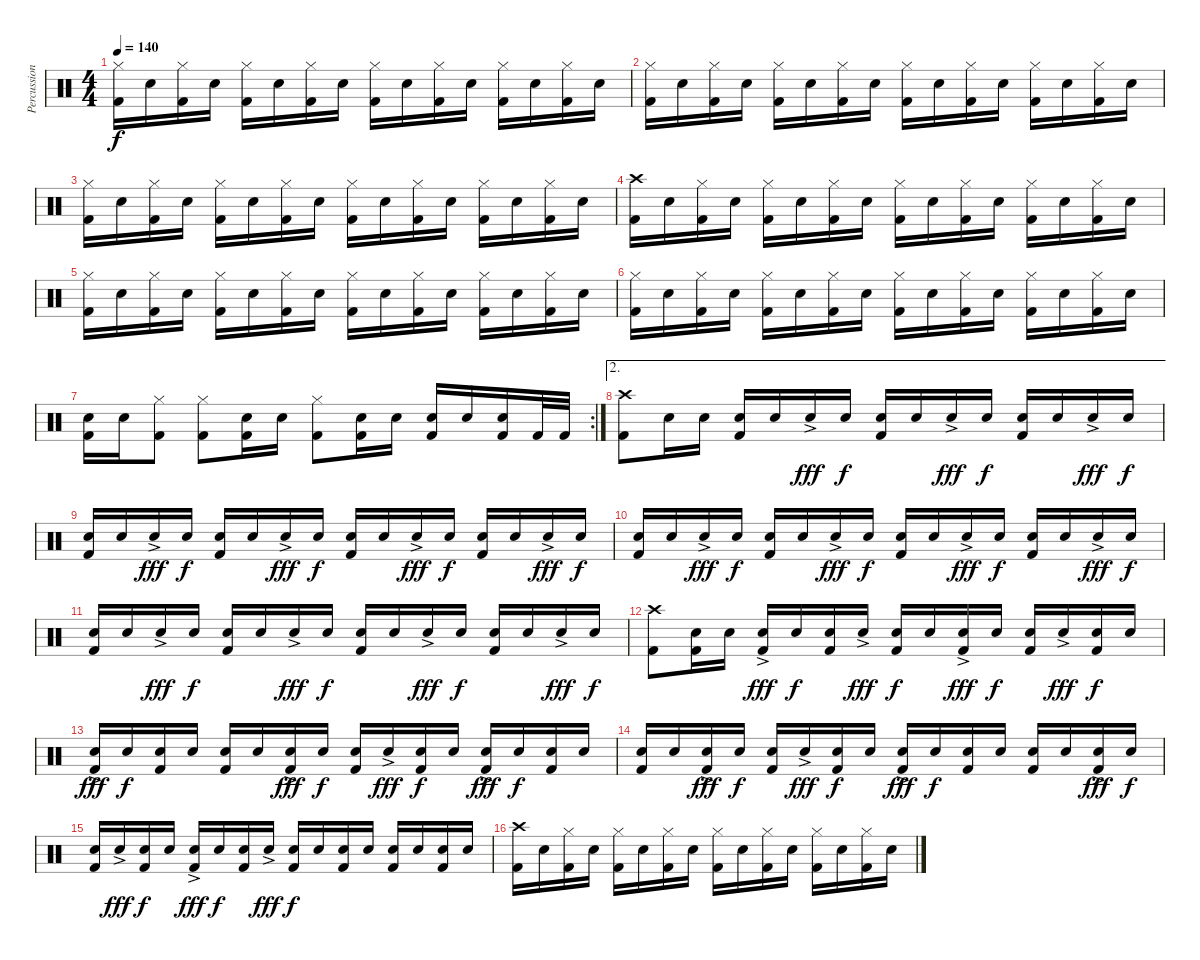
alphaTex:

\track ("Percussion" "Percussion") {instrument percussion}
\staff {score}
\articulation defaults
\ts (4 4)
\tempo 140
\clef neutral
\ks c
("Hi-Hat (closed)" "Kick (hit) 2").16{dy f} "Snare (hit) 2".16 ("Hi-Hat (closed)" "Kick (hit) 2").16 "Snare (hit) 2".16 ("Hi-Hat (closed)" "Kick (hit) 2").16 "Snare (hit) 2".16 ("Hi-Hat (closed)" "Kick (hit) 2").16 "Snare (hit) 2".16 ("Hi-Hat (closed)" "Kick (hit) 2").16 "Snare (hit) 2".16 ("Hi-Hat (closed)" "Kick (hit) 2").16 "Snare (hit) 2".16 ("Hi-Hat (closed)" "Kick (hit) 2").16 "Snare (hit) 2".16 ("Hi-Hat (closed)" "Kick (hit) 2").16 "Snare (hit) 2".16 |
("Hi-Hat (closed)" "Kick (hit) 2").16 "Snare (hit) 2".16 ("Hi-Hat (closed)" "Kick (hit) 2").16 "Snare (hit) 2".16 ("Hi-Hat (closed)" "Kick (hit) 2").16 "Snare (hit) 2".16 ("Hi-Hat (closed)" "Kick (hit) 2").16 "Snare (hit) 2".16 ("Hi-Hat (closed)" "Kick (hit) 2").16 "Snare (hit) 2".16 ("Hi-Hat (closed)" "Kick (hit) 2").16 "Snare (hit) 2".16 ("Hi-Hat (closed)" "Kick (hit) 2").16 "Snare (hit) 2".16 ("Hi-Hat (closed)" "Kick (hit) 2").16 "Snare (hit) 2".16 |
("Hi-Hat (closed)" "Kick (hit) 2").16 "Snare (hit) 2".16 ("Hi-Hat (closed)" "Kick (hit) 2").16 "Snare (hit) 2".16 ("Hi-Hat (closed)" "Kick (hit) 2").16 "Snare (hit) 2".16 ("Hi-Hat (closed)" "Kick (hit) 2").16 "Snare (hit) 2".16 ("Hi-Hat (closed)" "Kick (hit) 2").16 "Snare (hit) 2".16 ("Hi-Hat (closed)" "Kick (hit) 2").16 "Snare (hit) 2".16 ("Hi-Hat (closed)" "Kick (hit) 2").16 "Snare (hit) 2".16 ("Hi-Hat (closed)" "Kick (hit) 2").16 "Snare (hit) 2".16 |
("Crash high (hit)" "Kick (hit) 2").16 "Snare (hit) 2".16 ("Hi-Hat (closed)" "Kick (hit) 2").16 "Snare (hit) 2".16 ("Hi-Hat (closed)" "Kick (hit) 2").16 "Snare (hit) 2".16 ("Hi-Hat (closed)" "Kick (hit) 2").16 "Snare (hit) 2".16 ("Hi-Hat (closed)" "Kick (hit) 2").16 "Snare (hit) 2".16 ("Hi-Hat (closed)" "Kick (hit) 2").16 "Snare (hit) 2".16 ("Hi-Hat (closed)" "Kick (hit) 2").16 "Snare (hit) 2".16 ("Hi-Hat (closed)" "Kick (hit) 2").16 "Snare (hit) 2".16 |
("Hi-Hat (closed)" "Kick (hit) 2").16 "Snare (hit) 2".16 ("Hi-Hat (closed)" "Kick (hit) 2").16 "Snare (hit) 2".16 ("Hi-Hat (closed)" "Kick (hit) 2").16 "Snare (hit) 2".16 ("Hi-Hat (closed)" "Kick (hit) 2").16 "Snare (hit) 2".16 ("Hi-Hat (closed)" "Kick (hit) 2").16 "Snare (hit) 2".16 ("Hi-Hat (closed)" "Kick (hit) 2").16 "Snare (hit) 2".16 ("Hi-Hat (closed)" "Kick (hit) 2").16 "Snare (hit) 2".16 ("Hi-Hat (closed)" "Kick (hit) 2").16 "Snare (hit) 2".16 |
("Hi-Hat (closed)" "Kick (hit) 2").16 "Snare (hit) 2".16 ("Hi-Hat (closed)" "Kick (hit) 2").16 "Snare (hit) 2".16 ("Hi-Hat (closed)" "Kick (hit) 2").16 "Snare (hit) 2".16 ("Hi-Hat (closed)" "Kick (hit) 2").16 "Snare (hit) 2".16 ("Hi-Hat (closed)" "Kick (hit) 2").16 "Snare (hit) 2".16 ("Hi-Hat (closed)" "Kick (hit) 2").16 "Snare (hit) 2".16 ("Hi-Hat (closed)" "Kick (hit) 2").16 "Snare (hit) 2".16 ("Hi-Hat (closed)" "Kick (hit) 2").16 "Snare (hit) 2".16 |
\rc 2
("Snare (hit) 2" "Kick (hit) 2").16 "Snare (hit) 2".16 ("Hi-Hat (closed)" "Kick (hit) 2").8 ("Hi-Hat (closed)" "Kick (hit) 2").8 ("Snare (hit) 2" "Kick (hit) 2").16 "Snare (hit) 2".16 ("Hi-Hat (closed)" "Kick (hit) 2").8 ("Snare (hit) 2" "Kick (hit) 2").16 "Snare (hit) 2".16 ("Snare (hit) 2" "Kick (hit) 2").16 "Snare (hit) 2".16 ("Snare (hit) 2" "Kick (hit) 2").16 "Kick (hit) 2".32 "Kick (hit) 2".32 |
\ae 2
("Crash high (hit)" "Kick (hit) 2").8 "Snare (hit) 2".16 "Snare (hit) 2".16 ("Snare (hit) 2" "Kick (hit) 2").16 "Snare (hit) 2".16 "Snare (hit) 2"{ac}.16{dy fff} "Snare (hit) 2".16{dy f} ("Snare (hit) 2" "Kick (hit) 2").16 "Snare (hit) 2".16 "Snare (hit) 2"{ac}.16{dy fff} "Snare (hit) 2".16{dy f} ("Snare (hit) 2" "Kick (hit) 2").16 "Snare (hit) 2".16 "Snare (hit) 2"{ac}.16{dy fff} "Snare (hit) 2".16{dy f} |
("Snare (hit) 2" "Kick (hit) 2").16 "Snare (hit) 2".16 "Snare (hit) 2"{ac}.16{dy fff} "Snare (hit) 2".16{dy f} ("Snare (hit) 2" "Kick (hit) 2").16 "Snare (hit) 2".16 "Snare (hit) 2"{ac}.16{dy fff} "Snare (hit) 2".16{dy f} ("Snare (hit) 2" "Kick (hit) 2").16 "Snare (hit) 2".16 "Snare (hit) 2"{ac}.16{dy fff} "Snare (hit) 2".16{dy f} ("Snare (hit) 2" "Kick (hit) 2").16 "Snare (hit) 2".16 "Snare (hit) 2"{ac}.16{dy fff} "Snare (hit) 2".16{dy f} |
("Snare (hit) 2" "Kick (hit) 2").16 "Snare (hit) 2".16 "Snare (hit) 2"{ac}.16{dy fff} "Snare (hit) 2".16{dy f} ("Snare (hit) 2" "Kick (hit) 2").16 "Snare (hit) 2".16 "Snare (hit) 2"{ac}.16{dy fff} "Snare (hit) 2".16{dy f} ("Snare (hit) 2" "Kick (hit) 2").16 "Snare (hit) 2".16 "Snare (hit) 2"{ac}.16{dy fff} "Snare (hit) 2".16{dy f} ("Snare (hit) 2" "Kick (hit) 2").16 "Snare (hit) 2".16 "Snare (hit) 2"{ac}.16{dy fff} "Snare (hit) 2".16{dy f} |
("Snare (hit) 2" "Kick (hit) 2").16 "Snare (hit) 2".16 "Snare (hit) 2"{ac}.16{dy fff} "Snare (hit) 2".16{dy f} ("Snare (hit) 2" "Kick (hit) 2").16 "Snare (hit) 2".16 "Snare (hit) 2"{ac}.16{dy fff} "Snare (hit) 2".16{dy f} ("Snare (hit) 2" "Kick (hit) 2").16 "Snare (hit) 2".16 "Snare (hit) 2"{ac}.16{dy fff} "Snare (hit) 2".16{dy f} ("Snare (hit) 2" "Kick (hit) 2").16 "Snare (hit) 2".16 "Snare (hit) 2"{ac}.16{dy fff} "Snare (hit) 2".16{dy f} |
("Crash high (hit)" "Kick (hit) 2").8 ("Snare (hit) 2" "Kick (hit) 2").16 "Snare (hit) 2".16 ("Snare (hit) 2"{ac} "Kick (hit) 2").16{dy fff} "Snare (hit) 2".16{dy f} ("Snare (hit) 2" "Kick (hit) 2").16 "Snare (hit) 2"{ac}.16{dy fff} ("Snare (hit) 2" "Kick (hit) 2").16{dy f} "Snare (hit) 2".16 ("Snare (hit) 2"{ac} "Kick (hit) 2").16{dy fff} "Snare (hit) 2".16{dy f} ("Snare (hit) 2" "Kick (hit) 2").16 "Snare (hit) 2"{ac}.16{dy fff} ("Snare (hit) 2" "Kick (hit) 2").16{dy f} "Snare (hit) 2".16 |
("Snare (hit) 2"{ac} "Kick (hit) 2").16{dy fff} "Snare (hit) 2".16{dy f} ("Snare (hit) 2" "Kick (hit) 2").16 "Snare (hit) 2".16 ("Snare (hit) 2" "Kick (hit) 2").16 "Snare (hit) 2".16 ("Snare (hit) 2"{ac} "Kick (hit) 2").16{dy fff} "Snare (hit) 2".16{dy f} ("Snare (hit) 2" "Kick (hit) 2").16 "Snare (hit) 2"{ac}.16{dy fff} ("Snare (hit) 2" "Kick (hit) 2").16{dy f} "Snare (hit) 2".16 ("Snare (hit) 2"{ac} "Kick (hit) 2").16{dy fff} "Snare (hit) 2".16{dy f} ("Snare (hit) 2" "Kick (hit) 2").16 "Snare (hit) 2".16 |
("Snare (hit) 2" "Kick (hit) 2").16 "Snare (hit) 2".16 ("Snare (hit) 2"{ac} "Kick (hit) 2").16{dy fff} "Snare (hit) 2".16{dy f} ("Snare (hit) 2" "Kick (hit) 2").16 "Snare (hit) 2"{ac}.16{dy fff} ("Snare (hit) 2" "Kick (hit) 2").16{dy f} "Snare (hit) 2".16 ("Snare (hit) 2"{ac} "Kick (hit) 2").16{dy fff} "Snare (hit) 2".16{dy f} ("Snare (hit) 2" "Kick (hit) 2").16 "Snare (hit) 2".16 ("Snare (hit) 2" "Kick (hit) 2").16 "Snare (hit) 2".16 ("Snare (hit) 2"{ac} "Kick (hit) 2").16{dy fff} "Snare (hit) 2".16{dy f} |
("Snare (hit) 2" "Kick (hit) 2").16 "Snare (hit) 2"{ac}.16{dy fff} ("Snare (hit) 2" "Kick (hit) 2").16{dy f} "Snare (hit) 2".16 ("Snare (hit) 2"{ac} "Kick (hit) 2").16{dy fff} "Snare (hit) 2".16{dy f} ("Snare (hit) 2" "Kick (hit) 2").16 "Snare (hit) 2"{ac}.16{dy fff} ("Snare (hit) 2" "Kick (hit) 2").16{dy f} "Snare (hit) 2".16 ("Snare (hit) 2" "Kick (hit) 2").16 "Snare (hit) 2".16 ("Snare (hit) 2" "Kick (hit) 2").16 "Snare (hit) 2".16 ("Snare (hit) 2" "Kick (hit) 2").16 "Snare (hit) 2".16 |
("Crash high (hit)" "Kick (hit) 2").16 "Snare (hit) 2".16 ("Hi-Hat (closed)" "Kick (hit) 2").16 "Snare (hit) 2".16 ("Hi-Hat (closed)" "Kick (hit) 2").16 "Snare (hit) 2".16 ("Hi-Hat (closed)" "Kick (hit) 2").16 "Snare (hit) 2".16 ("Hi-Hat (closed)" "Kick (hit) 2").16 "Snare (hit) 2".16 ("Hi-Hat (closed)" "Kick (hit) 2").16 "Snare (hit) 2".16 ("Hi-Hat (closed)" "Kick (hit) 2").16 "Snare (hit) 2".16 ("Hi-Hat (closed)" "Kick (hit) 2").16 "Snare (hit) 2".16
